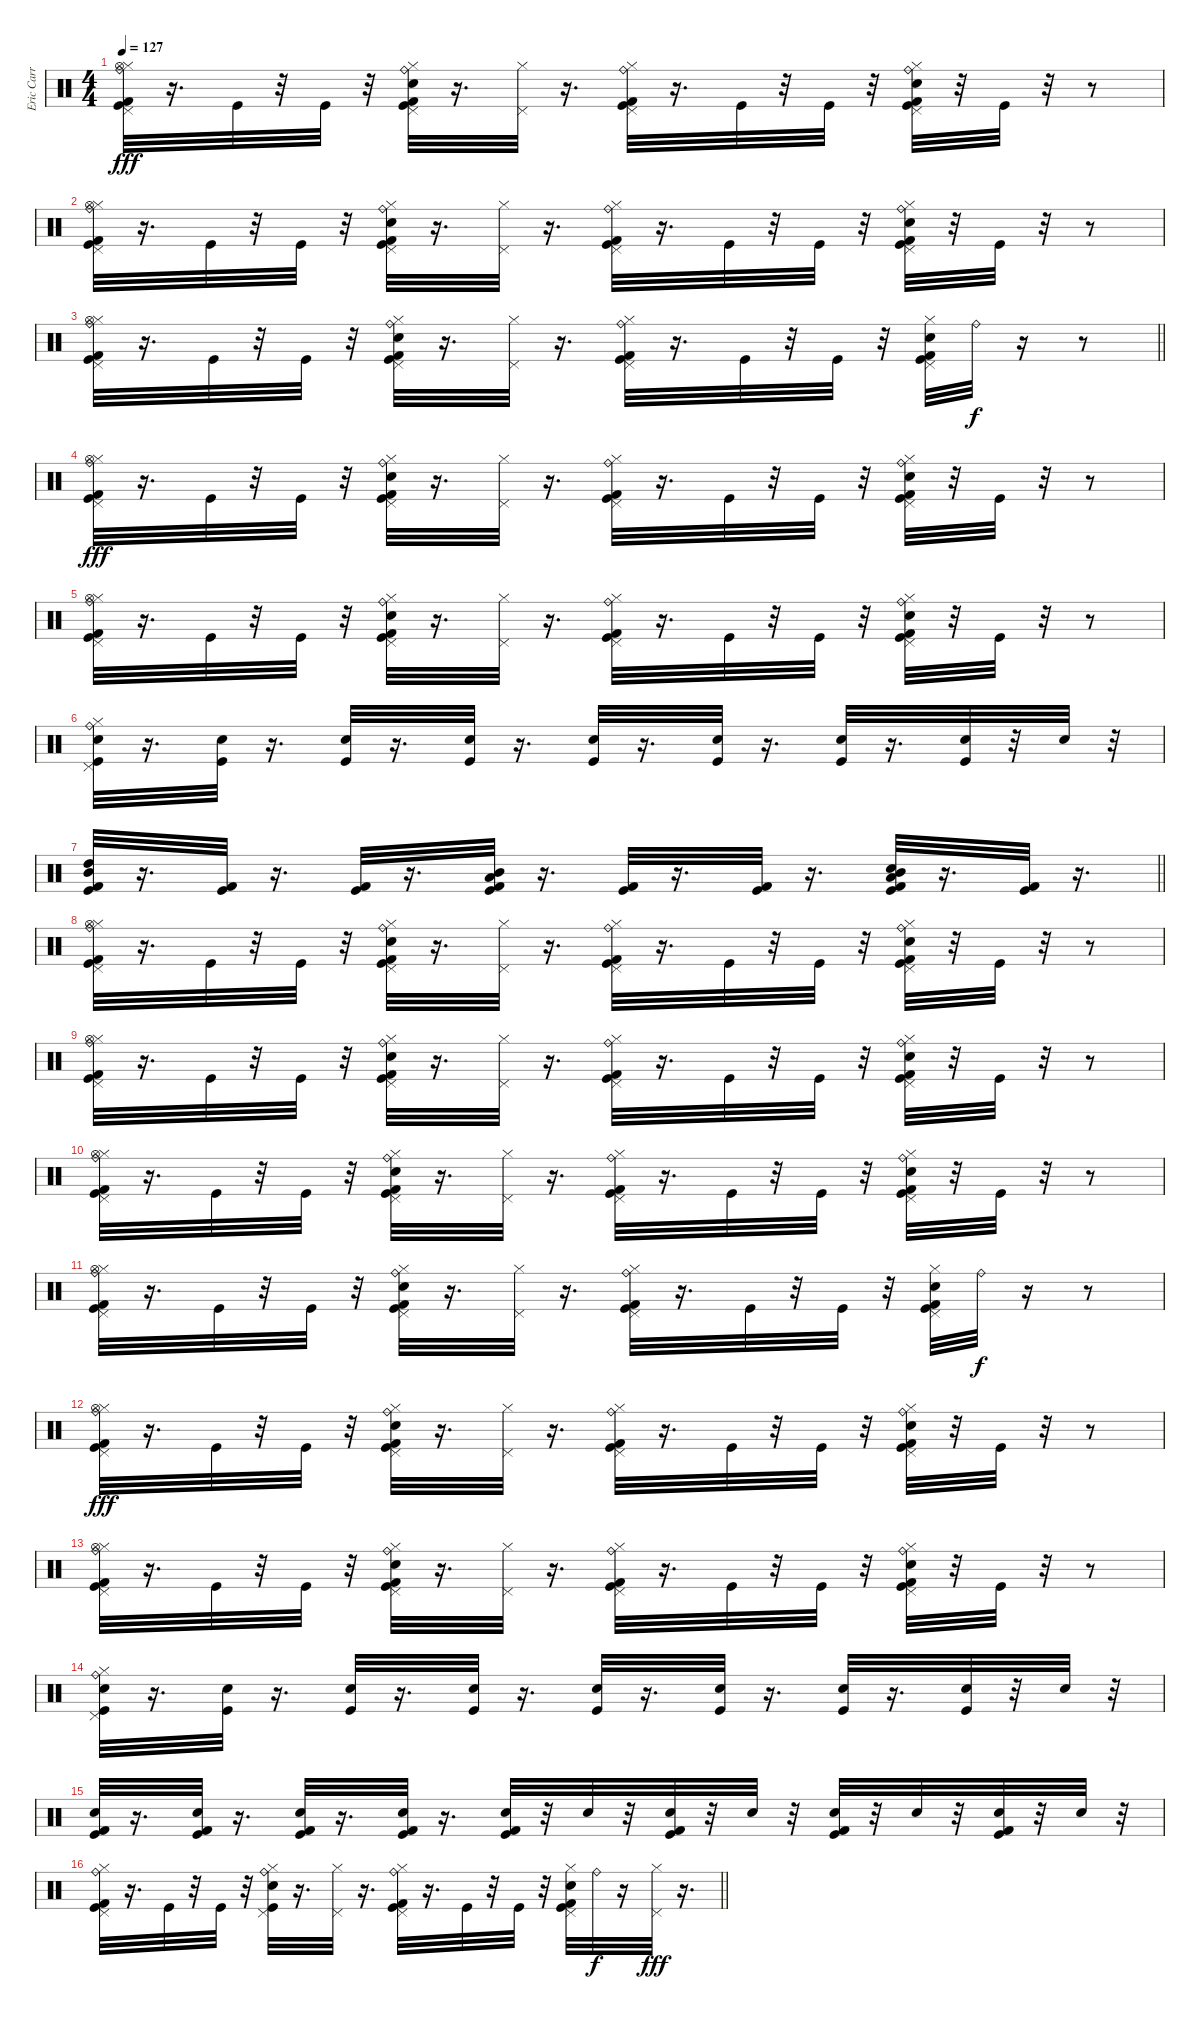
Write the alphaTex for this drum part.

\track ("Eric Carr - Bateria" "Eric Carr ") {instrument percussion}
\staff {score}
\articulation defaults
\ts (4 4)
\tempo 127
\clef neutral
\ks c
("Ride (bell)" "Hi-Hat (closed)" "Pedal Hi-Hat (hit)" "Hi-Hat (open)" "Kick (hit) 2" "Kick (hit)").32{dy fff} r.16{d} "Kick (hit)".32 r.32 "Kick (hit)".32 r.32 ("Ride (bell)" "Snare (hit) 2" "Kick (hit)" "Kick (hit) 2" "Pedal Hi-Hat (hit)" "Hi-Hat (closed)").32 r.16{d} ("Hi-Hat (closed)" "Pedal Hi-Hat (hit)").32 r.16{d} ("Ride (bell)" "Pedal Hi-Hat (hit)" "Kick (hit) 2" "Hi-Hat (closed)" "Kick (hit)").32 r.16{d} "Kick (hit)".32 r.32 "Kick (hit)".32 r.32 ("Ride (bell)" "Hi-Hat (closed)" "Kick (hit) 2" "Kick (hit)" "Pedal Hi-Hat (hit)" "Snare (hit) 2").32 r.32 "Kick (hit)".32 r.32 r.8 |
("Ride (bell)" "Hi-Hat (closed)" "Pedal Hi-Hat (hit)" "Hi-Hat (open)" "Kick (hit) 2" "Kick (hit)").32 r.16{d} "Kick (hit)".32 r.32 "Kick (hit)".32 r.32 ("Ride (bell)" "Snare (hit) 2" "Kick (hit)" "Kick (hit) 2" "Pedal Hi-Hat (hit)" "Hi-Hat (closed)").32 r.16{d} ("Hi-Hat (closed)" "Pedal Hi-Hat (hit)").32 r.16{d} ("Ride (bell)" "Pedal Hi-Hat (hit)" "Kick (hit) 2" "Hi-Hat (closed)" "Kick (hit)").32 r.16{d} "Kick (hit)".32 r.32 "Kick (hit)".32 r.32 ("Ride (bell)" "Hi-Hat (closed)" "Kick (hit) 2" "Kick (hit)" "Pedal Hi-Hat (hit)" "Snare (hit) 2").32 r.32 "Kick (hit)".32 r.32 r.8 |
\barLineRight lightlight
("Ride (bell)" "Hi-Hat (closed)" "Pedal Hi-Hat (hit)" "Hi-Hat (open)" "Kick (hit) 2" "Kick (hit)").32 r.16{d} "Kick (hit)".32 r.32 "Kick (hit)".32 r.32 ("Ride (bell)" "Snare (hit) 2" "Kick (hit)" "Kick (hit) 2" "Pedal Hi-Hat (hit)" "Hi-Hat (closed)").32 r.16{d} ("Hi-Hat (closed)" "Pedal Hi-Hat (hit)").32 r.16{d} ("Ride (bell)" "Pedal Hi-Hat (hit)" "Kick (hit) 2" "Hi-Hat (closed)" "Kick (hit)").32 r.16{d} "Kick (hit)".32 r.32 "Kick (hit)".32 r.32 ("Snare (hit) 2" "Hi-Hat (closed)" "Pedal Hi-Hat (hit)" "Kick (hit)" "Kick (hit) 2").32 "Ride (bell)".32{dy f} r.16 r.8 |
("Ride (bell)" "Hi-Hat (closed)" "Pedal Hi-Hat (hit)" "Hi-Hat (open)" "Kick (hit) 2" "Kick (hit)").32{dy fff} r.16{d} "Kick (hit)".32 r.32 "Kick (hit)".32 r.32 ("Ride (bell)" "Snare (hit) 2" "Kick (hit)" "Kick (hit) 2" "Pedal Hi-Hat (hit)" "Hi-Hat (closed)").32 r.16{d} ("Hi-Hat (closed)" "Pedal Hi-Hat (hit)").32 r.16{d} ("Ride (bell)" "Pedal Hi-Hat (hit)" "Kick (hit) 2" "Hi-Hat (closed)" "Kick (hit)").32 r.16{d} "Kick (hit)".32 r.32 "Kick (hit)".32 r.32 ("Ride (bell)" "Hi-Hat (closed)" "Kick (hit) 2" "Kick (hit)" "Pedal Hi-Hat (hit)" "Snare (hit) 2").32 r.32 "Kick (hit)".32 r.32 r.8 |
("Ride (bell)" "Hi-Hat (closed)" "Pedal Hi-Hat (hit)" "Hi-Hat (open)" "Kick (hit) 2" "Kick (hit)").32 r.16{d} "Kick (hit)".32 r.32 "Kick (hit)".32 r.32 ("Ride (bell)" "Snare (hit) 2" "Kick (hit)" "Kick (hit) 2" "Pedal Hi-Hat (hit)" "Hi-Hat (closed)").32 r.16{d} ("Hi-Hat (closed)" "Pedal Hi-Hat (hit)").32 r.16{d} ("Ride (bell)" "Pedal Hi-Hat (hit)" "Kick (hit) 2" "Hi-Hat (closed)" "Kick (hit)").32 r.16{d} "Kick (hit)".32 r.32 "Kick (hit)".32 r.32 ("Ride (bell)" "Hi-Hat (closed)" "Kick (hit) 2" "Kick (hit)" "Pedal Hi-Hat (hit)" "Snare (hit) 2").32 r.32 "Kick (hit)".32 r.32 r.8 |
("Ride (bell)" "Snare (hit) 2" "Pedal Hi-Hat (hit)" "Hi-Hat (closed)" "Kick (hit)").32 r.16{d} ("Snare (hit) 2" "Kick (hit)").32 r.16{d} ("Snare (hit) 2" "Kick (hit)").32 r.16{d} ("Snare (hit) 2" "Kick (hit)").32 r.16{d} ("Snare (hit) 2" "Kick (hit)").32 r.16{d} ("Snare (hit) 2" "Kick (hit)").32 r.16{d} ("Snare (hit) 2" "Kick (hit)").32 r.16{d} ("Snare (hit) 2" "Kick (hit)").32 r.32 "Snare (hit) 2".32 r.32 |
\barLineRight lightlight
("High Tom (hit)" "Mid Tom (hit)" "Kick (hit) 2" "Kick (hit)").32 r.16{d} ("Kick (hit) 2" "Kick (hit)").32 r.16{d} ("Kick (hit) 2" "Kick (hit)").32 r.16{d} ("Low Tom (hit)" "Mid Tom (hit)" "Kick (hit) 2" "Kick (hit)").32 r.16{d} ("Kick (hit) 2" "Kick (hit)").32 r.16{d} ("Kick (hit) 2" "Kick (hit)").32 r.16{d} ("Snare (hit) 2" "Low Tom (hit)" "Mid Tom (hit)" "Kick (hit) 2" "Kick (hit)").32 r.16{d} ("Kick (hit) 2" "Kick (hit)").32 r.16{d} |
("Ride (bell)" "Hi-Hat (closed)" "Pedal Hi-Hat (hit)" "Hi-Hat (open)" "Kick (hit) 2" "Kick (hit)").32 r.16{d} "Kick (hit)".32 r.32 "Kick (hit)".32 r.32 ("Ride (bell)" "Snare (hit) 2" "Kick (hit)" "Kick (hit) 2" "Pedal Hi-Hat (hit)" "Hi-Hat (closed)").32 r.16{d} ("Hi-Hat (closed)" "Pedal Hi-Hat (hit)").32 r.16{d} ("Ride (bell)" "Pedal Hi-Hat (hit)" "Kick (hit) 2" "Hi-Hat (closed)" "Kick (hit)").32 r.16{d} "Kick (hit)".32 r.32 "Kick (hit)".32 r.32 ("Ride (bell)" "Hi-Hat (closed)" "Kick (hit) 2" "Kick (hit)" "Pedal Hi-Hat (hit)" "Snare (hit) 2").32 r.32 "Kick (hit)".32 r.32 r.8 |
("Ride (bell)" "Hi-Hat (closed)" "Pedal Hi-Hat (hit)" "Hi-Hat (open)" "Kick (hit) 2" "Kick (hit)").32 r.16{d} "Kick (hit)".32 r.32 "Kick (hit)".32 r.32 ("Ride (bell)" "Snare (hit) 2" "Kick (hit)" "Kick (hit) 2" "Pedal Hi-Hat (hit)" "Hi-Hat (closed)").32 r.16{d} ("Hi-Hat (closed)" "Pedal Hi-Hat (hit)").32 r.16{d} ("Ride (bell)" "Pedal Hi-Hat (hit)" "Kick (hit) 2" "Hi-Hat (closed)" "Kick (hit)").32 r.16{d} "Kick (hit)".32 r.32 "Kick (hit)".32 r.32 ("Ride (bell)" "Hi-Hat (closed)" "Kick (hit) 2" "Kick (hit)" "Pedal Hi-Hat (hit)" "Snare (hit) 2").32 r.32 "Kick (hit)".32 r.32 r.8 |
("Ride (bell)" "Hi-Hat (closed)" "Pedal Hi-Hat (hit)" "Hi-Hat (open)" "Kick (hit) 2" "Kick (hit)").32 r.16{d} "Kick (hit)".32 r.32 "Kick (hit)".32 r.32 ("Ride (bell)" "Snare (hit) 2" "Kick (hit)" "Kick (hit) 2" "Pedal Hi-Hat (hit)" "Hi-Hat (closed)").32 r.16{d} ("Hi-Hat (closed)" "Pedal Hi-Hat (hit)").32 r.16{d} ("Ride (bell)" "Pedal Hi-Hat (hit)" "Kick (hit) 2" "Hi-Hat (closed)" "Kick (hit)").32 r.16{d} "Kick (hit)".32 r.32 "Kick (hit)".32 r.32 ("Ride (bell)" "Hi-Hat (closed)" "Kick (hit) 2" "Kick (hit)" "Pedal Hi-Hat (hit)" "Snare (hit) 2").32 r.32 "Kick (hit)".32 r.32 r.8 |
("Ride (bell)" "Hi-Hat (closed)" "Pedal Hi-Hat (hit)" "Hi-Hat (open)" "Kick (hit) 2" "Kick (hit)").32 r.16{d} "Kick (hit)".32 r.32 "Kick (hit)".32 r.32 ("Ride (bell)" "Snare (hit) 2" "Kick (hit)" "Kick (hit) 2" "Pedal Hi-Hat (hit)" "Hi-Hat (closed)").32 r.16{d} ("Hi-Hat (closed)" "Pedal Hi-Hat (hit)").32 r.16{d} ("Ride (bell)" "Pedal Hi-Hat (hit)" "Kick (hit) 2" "Hi-Hat (closed)" "Kick (hit)").32 r.16{d} "Kick (hit)".32 r.32 "Kick (hit)".32 r.32 ("Snare (hit) 2" "Hi-Hat (closed)" "Pedal Hi-Hat (hit)" "Kick (hit)" "Kick (hit) 2").32 "Ride (bell)".32{dy f} r.16 r.8 |
("Ride (bell)" "Hi-Hat (closed)" "Pedal Hi-Hat (hit)" "Hi-Hat (open)" "Kick (hit) 2" "Kick (hit)").32{dy fff} r.16{d} "Kick (hit)".32 r.32 "Kick (hit)".32 r.32 ("Ride (bell)" "Snare (hit) 2" "Kick (hit)" "Kick (hit) 2" "Pedal Hi-Hat (hit)" "Hi-Hat (closed)").32 r.16{d} ("Hi-Hat (closed)" "Pedal Hi-Hat (hit)").32 r.16{d} ("Ride (bell)" "Pedal Hi-Hat (hit)" "Kick (hit) 2" "Hi-Hat (closed)" "Kick (hit)").32 r.16{d} "Kick (hit)".32 r.32 "Kick (hit)".32 r.32 ("Ride (bell)" "Hi-Hat (closed)" "Kick (hit) 2" "Kick (hit)" "Pedal Hi-Hat (hit)" "Snare (hit) 2").32 r.32 "Kick (hit)".32 r.32 r.8 |
("Ride (bell)" "Hi-Hat (closed)" "Pedal Hi-Hat (hit)" "Hi-Hat (open)" "Kick (hit) 2" "Kick (hit)").32 r.16{d} "Kick (hit)".32 r.32 "Kick (hit)".32 r.32 ("Ride (bell)" "Snare (hit) 2" "Kick (hit)" "Kick (hit) 2" "Pedal Hi-Hat (hit)" "Hi-Hat (closed)").32 r.16{d} ("Hi-Hat (closed)" "Pedal Hi-Hat (hit)").32 r.16{d} ("Ride (bell)" "Pedal Hi-Hat (hit)" "Kick (hit) 2" "Hi-Hat (closed)" "Kick (hit)").32 r.16{d} "Kick (hit)".32 r.32 "Kick (hit)".32 r.32 ("Ride (bell)" "Hi-Hat (closed)" "Kick (hit) 2" "Kick (hit)" "Pedal Hi-Hat (hit)" "Snare (hit) 2").32 r.32 "Kick (hit)".32 r.32 r.8 |
("Ride (bell)" "Snare (hit) 2" "Pedal Hi-Hat (hit)" "Hi-Hat (closed)" "Kick (hit)").32 r.16{d} ("Snare (hit) 2" "Kick (hit)").32 r.16{d} ("Snare (hit) 2" "Kick (hit)").32 r.16{d} ("Snare (hit) 2" "Kick (hit)").32 r.16{d} ("Snare (hit) 2" "Kick (hit)").32 r.16{d} ("Snare (hit) 2" "Kick (hit)").32 r.16{d} ("Snare (hit) 2" "Kick (hit)").32 r.16{d} ("Snare (hit) 2" "Kick (hit)").32 r.32 "Snare (hit) 2".32 r.32 |
("Snare (hit) 2" "Kick (hit) 2" "Kick (hit)").32 r.16{d} ("Snare (hit) 2" "Kick (hit) 2" "Kick (hit)").32 r.16{d} ("Snare (hit) 2" "Kick (hit) 2" "Kick (hit)").32 r.16{d} ("Snare (hit) 2" "Kick (hit) 2" "Kick (hit)").32 r.16{d} ("Snare (hit) 2" "Kick (hit) 2" "Kick (hit)").32 r.32 "Snare (hit) 2".32 r.32 ("Snare (hit) 2" "Kick (hit) 2" "Kick (hit)").32 r.32 "Snare (hit) 2".32 r.32 ("Snare (hit) 2" "Kick (hit) 2" "Kick (hit)").32 r.32 "Snare (hit) 2".32 r.32 ("Snare (hit) 2" "Kick (hit) 2" "Kick (hit)").32 r.32 "Snare (hit) 2".32 r.32 |
\barLineRight lightlight
("Ride (bell)" "Kick (hit) 2" "Kick (hit)" "Pedal Hi-Hat (hit)" "Hi-Hat (closed)").32 r.16{d} "Kick (hit)".32 r.32 "Kick (hit)".32 r.32 ("Ride (bell)" "Kick (hit)" "Snare (hit) 2" "Pedal Hi-Hat (hit)" "Hi-Hat (closed)").32 r.16{d} ("Hi-Hat (closed)" "Pedal Hi-Hat (hit)").32 r.16{d} ("Ride (bell)" "Pedal Hi-Hat (hit)" "Kick (hit) 2" "Hi-Hat (closed)" "Kick (hit)").32 r.16{d} "Kick (hit)".32 r.32 "Kick (hit)".32 r.32 ("Hi-Hat (closed)" "Kick (hit)" "Kick (hit) 2" "Pedal Hi-Hat (hit)" "Snare (hit) 2").32 "Ride (bell)".32{dy f} r.16 ("Hi-Hat (closed)" "Pedal Hi-Hat (hit)").32{dy fff} r.16{d}
